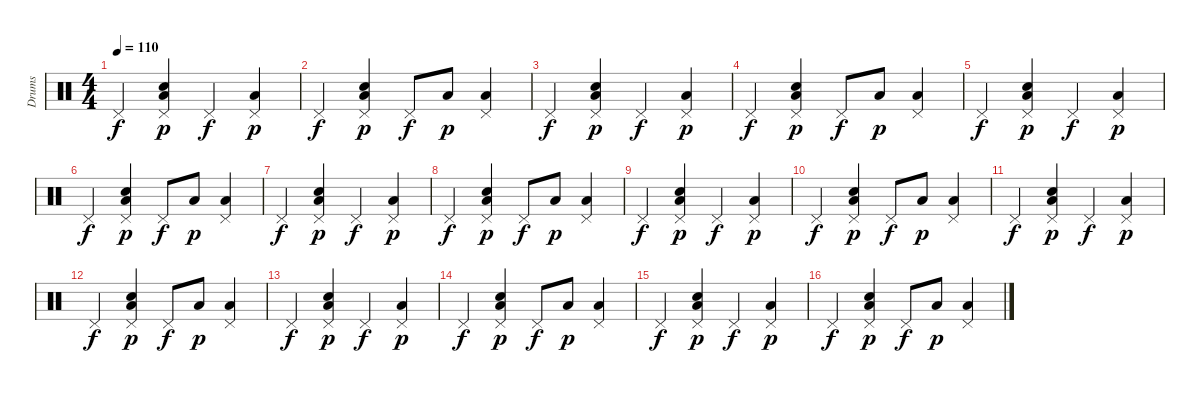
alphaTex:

\track ("Drums" "Drums") {instrument percussion}
\staff {score}
\articulation defaults
\ts (4 4)
\tempo 110
\clef neutral
\ks c "Pedal Hi-Hat (hit)".4{dy f}
("Pedal Hi-Hat (hit)" "Snare (hit) 2" "Low Floor Tom (hit)").4{dy p} "Pedal Hi-Hat (hit)".4{dy f} ("Pedal Hi-Hat (hit)" "Low Floor Tom (hit)").4{dy p} |
"Pedal Hi-Hat (hit)".4{dy f} ("Pedal Hi-Hat (hit)" "Snare (hit) 2" "Low Floor Tom (hit)").4{dy p} "Pedal Hi-Hat (hit)".8{dy f} "Low Floor Tom (hit)".8{dy p} ("Pedal Hi-Hat (hit)" "Low Floor Tom (hit)").4 |
"Pedal Hi-Hat (hit)".4{dy f} ("Pedal Hi-Hat (hit)" "Snare (hit) 2" "Low Floor Tom (hit)").4{dy p} "Pedal Hi-Hat (hit)".4{dy f} ("Pedal Hi-Hat (hit)" "Low Floor Tom (hit)").4{dy p} |
"Pedal Hi-Hat (hit)".4{dy f} ("Pedal Hi-Hat (hit)" "Snare (hit) 2" "Low Floor Tom (hit)").4{dy p} "Pedal Hi-Hat (hit)".8{dy f} "Low Floor Tom (hit)".8{dy p} ("Pedal Hi-Hat (hit)" "Low Floor Tom (hit)").4 |
"Pedal Hi-Hat (hit)".4{dy f} ("Pedal Hi-Hat (hit)" "Snare (hit) 2" "Low Floor Tom (hit)").4{dy p} "Pedal Hi-Hat (hit)".4{dy f} ("Pedal Hi-Hat (hit)" "Low Floor Tom (hit)").4{dy p} |
"Pedal Hi-Hat (hit)".4{dy f} ("Pedal Hi-Hat (hit)" "Snare (hit) 2" "Low Floor Tom (hit)").4{dy p} "Pedal Hi-Hat (hit)".8{dy f} "Low Floor Tom (hit)".8{dy p} ("Pedal Hi-Hat (hit)" "Low Floor Tom (hit)").4 |
"Pedal Hi-Hat (hit)".4{dy f} ("Pedal Hi-Hat (hit)" "Snare (hit) 2" "Low Floor Tom (hit)").4{dy p} "Pedal Hi-Hat (hit)".4{dy f} ("Pedal Hi-Hat (hit)" "Low Floor Tom (hit)").4{dy p} |
"Pedal Hi-Hat (hit)".4{dy f} ("Pedal Hi-Hat (hit)" "Snare (hit) 2" "Low Floor Tom (hit)").4{dy p} "Pedal Hi-Hat (hit)".8{dy f} "Low Floor Tom (hit)".8{dy p} ("Pedal Hi-Hat (hit)" "Low Floor Tom (hit)").4 |
"Pedal Hi-Hat (hit)".4{dy f} ("Pedal Hi-Hat (hit)" "Snare (hit) 2" "Low Floor Tom (hit)").4{dy p} "Pedal Hi-Hat (hit)".4{dy f} ("Pedal Hi-Hat (hit)" "Low Floor Tom (hit)").4{dy p} |
"Pedal Hi-Hat (hit)".4{dy f} ("Pedal Hi-Hat (hit)" "Snare (hit) 2" "Low Floor Tom (hit)").4{dy p} "Pedal Hi-Hat (hit)".8{dy f} "Low Floor Tom (hit)".8{dy p} ("Pedal Hi-Hat (hit)" "Low Floor Tom (hit)").4 |
"Pedal Hi-Hat (hit)".4{dy f} ("Pedal Hi-Hat (hit)" "Snare (hit) 2" "Low Floor Tom (hit)").4{dy p} "Pedal Hi-Hat (hit)".4{dy f} ("Pedal Hi-Hat (hit)" "Low Floor Tom (hit)").4{dy p} |
"Pedal Hi-Hat (hit)".4{dy f} ("Pedal Hi-Hat (hit)" "Snare (hit) 2" "Low Floor Tom (hit)").4{dy p} "Pedal Hi-Hat (hit)".8{dy f} "Low Floor Tom (hit)".8{dy p} ("Pedal Hi-Hat (hit)" "Low Floor Tom (hit)").4 |
"Pedal Hi-Hat (hit)".4{dy f} ("Pedal Hi-Hat (hit)" "Snare (hit) 2" "Low Floor Tom (hit)").4{dy p} "Pedal Hi-Hat (hit)".4{dy f} ("Pedal Hi-Hat (hit)" "Low Floor Tom (hit)").4{dy p} |
"Pedal Hi-Hat (hit)".4{dy f} ("Pedal Hi-Hat (hit)" "Snare (hit) 2" "Low Floor Tom (hit)").4{dy p} "Pedal Hi-Hat (hit)".8{dy f} "Low Floor Tom (hit)".8{dy p} ("Pedal Hi-Hat (hit)" "Low Floor Tom (hit)").4 |
"Pedal Hi-Hat (hit)".4{dy f} ("Pedal Hi-Hat (hit)" "Snare (hit) 2" "Low Floor Tom (hit)").4{dy p} "Pedal Hi-Hat (hit)".4{dy f} ("Pedal Hi-Hat (hit)" "Low Floor Tom (hit)").4{dy p} |
"Pedal Hi-Hat (hit)".4{dy f} ("Pedal Hi-Hat (hit)" "Snare (hit) 2" "Low Floor Tom (hit)").4{dy p} "Pedal Hi-Hat (hit)".8{dy f} "Low Floor Tom (hit)".8{dy p} ("Pedal Hi-Hat (hit)" "Low Floor Tom (hit)").4
